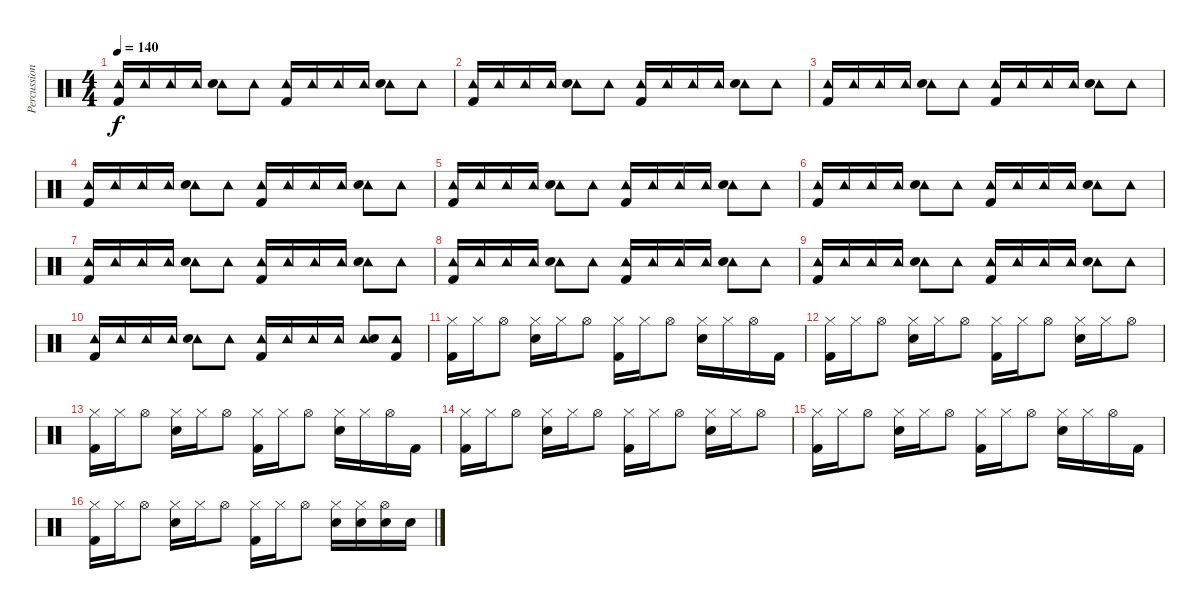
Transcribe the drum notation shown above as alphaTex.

\track ("Percussion" "Percussion") {instrument percussion}
\staff {score}
\articulation defaults
\ts (4 4)
\tempo 140
\clef neutral
\ks c
("Tambourine (hit)" "Kick (hit) 2").16{dy f} "Tambourine (hit)".16 "Tambourine (hit)".16 "Tambourine (hit)".16 ("Tambourine (hit)" "Snare (hit) 2").8 "Tambourine (hit)".8 ("Tambourine (hit)" "Kick (hit) 2").16 "Tambourine (hit)".16 "Tambourine (hit)".16 "Tambourine (hit)".16 ("Tambourine (hit)" "Snare (hit) 2").8 "Tambourine (hit)".8 |
("Tambourine (hit)" "Kick (hit) 2").16 "Tambourine (hit)".16 "Tambourine (hit)".16 "Tambourine (hit)".16 ("Tambourine (hit)" "Snare (hit) 2").8 "Tambourine (hit)".8 ("Tambourine (hit)" "Kick (hit) 2").16 "Tambourine (hit)".16 "Tambourine (hit)".16 "Tambourine (hit)".16 ("Tambourine (hit)" "Snare (hit) 2").8 "Tambourine (hit)".8 |
("Tambourine (hit)" "Kick (hit) 2").16 "Tambourine (hit)".16 "Tambourine (hit)".16 "Tambourine (hit)".16 ("Tambourine (hit)" "Snare (hit) 2").8 "Tambourine (hit)".8 ("Tambourine (hit)" "Kick (hit) 2").16 "Tambourine (hit)".16 "Tambourine (hit)".16 "Tambourine (hit)".16 ("Tambourine (hit)" "Snare (hit) 2").8 "Tambourine (hit)".8 |
("Tambourine (hit)" "Kick (hit) 2").16 "Tambourine (hit)".16 "Tambourine (hit)".16 "Tambourine (hit)".16 ("Tambourine (hit)" "Snare (hit) 2").8 "Tambourine (hit)".8 ("Tambourine (hit)" "Kick (hit) 2").16 "Tambourine (hit)".16 "Tambourine (hit)".16 "Tambourine (hit)".16 ("Tambourine (hit)" "Snare (hit) 2").8 "Tambourine (hit)".8 |
("Tambourine (hit)" "Kick (hit) 2").16 "Tambourine (hit)".16 "Tambourine (hit)".16 "Tambourine (hit)".16 ("Tambourine (hit)" "Snare (hit) 2").8 "Tambourine (hit)".8 ("Tambourine (hit)" "Kick (hit) 2").16 "Tambourine (hit)".16 "Tambourine (hit)".16 "Tambourine (hit)".16 ("Tambourine (hit)" "Snare (hit) 2").8 "Tambourine (hit)".8 |
("Tambourine (hit)" "Kick (hit) 2").16 "Tambourine (hit)".16 "Tambourine (hit)".16 "Tambourine (hit)".16 ("Tambourine (hit)" "Snare (hit) 2").8 "Tambourine (hit)".8 ("Tambourine (hit)" "Kick (hit) 2").16 "Tambourine (hit)".16 "Tambourine (hit)".16 "Tambourine (hit)".16 ("Tambourine (hit)" "Snare (hit) 2").8 "Tambourine (hit)".8 |
("Tambourine (hit)" "Kick (hit) 2").16 "Tambourine (hit)".16 "Tambourine (hit)".16 "Tambourine (hit)".16 ("Tambourine (hit)" "Snare (hit) 2").8 "Tambourine (hit)".8 ("Tambourine (hit)" "Kick (hit) 2").16 "Tambourine (hit)".16 "Tambourine (hit)".16 "Tambourine (hit)".16 ("Tambourine (hit)" "Snare (hit) 2").8 "Tambourine (hit)".8 |
("Tambourine (hit)" "Kick (hit) 2").16 "Tambourine (hit)".16 "Tambourine (hit)".16 "Tambourine (hit)".16 ("Tambourine (hit)" "Snare (hit) 2").8 "Tambourine (hit)".8 ("Tambourine (hit)" "Kick (hit) 2").16 "Tambourine (hit)".16 "Tambourine (hit)".16 "Tambourine (hit)".16 ("Tambourine (hit)" "Snare (hit) 2").8 "Tambourine (hit)".8 |
("Tambourine (hit)" "Kick (hit) 2").16 "Tambourine (hit)".16 "Tambourine (hit)".16 "Tambourine (hit)".16 ("Tambourine (hit)" "Snare (hit) 2").8 "Tambourine (hit)".8 ("Tambourine (hit)" "Kick (hit) 2").16 "Tambourine (hit)".16 "Tambourine (hit)".16 "Tambourine (hit)".16 ("Tambourine (hit)" "Snare (hit) 2").8 "Tambourine (hit)".8 |
("Tambourine (hit)" "Kick (hit) 2").16 "Tambourine (hit)".16 "Tambourine (hit)".16 "Tambourine (hit)".16 ("Tambourine (hit)" "Snare (hit) 2").8 "Tambourine (hit)".8 ("Tambourine (hit)" "Kick (hit) 2").16 "Tambourine (hit)".16 "Tambourine (hit)".16 "Tambourine (hit)".16 ("Tambourine (hit)" "Snare (hit) 2").8 ("Tambourine (hit)" "Kick (hit) 2").8 |
("Hi-Hat (closed)" "Kick (hit) 2").16 "Hi-Hat (closed)".16 "Hi-Hat (open)".8 ("Hi-Hat (closed)" "Snare (hit) 2").16 "Hi-Hat (closed)".16 "Hi-Hat (open)".8 ("Hi-Hat (closed)" "Kick (hit) 2").16 "Hi-Hat (closed)".16 "Hi-Hat (open)".8 ("Hi-Hat (closed)" "Snare (hit) 2").16 "Hi-Hat (closed)".16 "Hi-Hat (open)".16 "Kick (hit) 2".16 |
("Hi-Hat (closed)" "Kick (hit) 2").16 "Hi-Hat (closed)".16 "Hi-Hat (open)".8 ("Hi-Hat (closed)" "Snare (hit) 2").16 "Hi-Hat (closed)".16 "Hi-Hat (open)".8 ("Hi-Hat (closed)" "Kick (hit) 2").16 "Hi-Hat (closed)".16 "Hi-Hat (open)".8 ("Hi-Hat (closed)" "Snare (hit) 2").16 "Hi-Hat (closed)".16 "Hi-Hat (open)".8 |
("Hi-Hat (closed)" "Kick (hit) 2").16 "Hi-Hat (closed)".16 "Hi-Hat (open)".8 ("Hi-Hat (closed)" "Snare (hit) 2").16 "Hi-Hat (closed)".16 "Hi-Hat (open)".8 ("Hi-Hat (closed)" "Kick (hit) 2").16 "Hi-Hat (closed)".16 "Hi-Hat (open)".8 ("Hi-Hat (closed)" "Snare (hit) 2").16 "Hi-Hat (closed)".16 "Hi-Hat (open)".16 "Kick (hit) 2".16 |
("Hi-Hat (closed)" "Kick (hit) 2").16 "Hi-Hat (closed)".16 "Hi-Hat (open)".8 ("Hi-Hat (closed)" "Snare (hit) 2").16 "Hi-Hat (closed)".16 "Hi-Hat (open)".8 ("Hi-Hat (closed)" "Kick (hit) 2").16 "Hi-Hat (closed)".16 "Hi-Hat (open)".8 ("Hi-Hat (closed)" "Snare (hit) 2").16 "Hi-Hat (closed)".16 "Hi-Hat (open)".8 |
("Hi-Hat (closed)" "Kick (hit) 2").16 "Hi-Hat (closed)".16 "Hi-Hat (open)".8 ("Hi-Hat (closed)" "Snare (hit) 2").16 "Hi-Hat (closed)".16 "Hi-Hat (open)".8 ("Hi-Hat (closed)" "Kick (hit) 2").16 "Hi-Hat (closed)".16 "Hi-Hat (open)".8 ("Hi-Hat (closed)" "Snare (hit) 2").16 "Hi-Hat (closed)".16 "Hi-Hat (open)".16 "Kick (hit) 2".16 |
("Hi-Hat (closed)" "Kick (hit) 2").16 "Hi-Hat (closed)".16 "Hi-Hat (open)".8 ("Hi-Hat (closed)" "Snare (hit) 2").16 "Hi-Hat (closed)".16 "Hi-Hat (open)".8 ("Hi-Hat (closed)" "Kick (hit) 2").16 "Hi-Hat (closed)".16 "Hi-Hat (open)".8 ("Hi-Hat (closed)" "Snare (hit) 2").16 ("Hi-Hat (closed)" "Snare (hit) 2").16 ("Hi-Hat (open)" "Snare (hit) 2").16 "Snare (hit) 2".16
